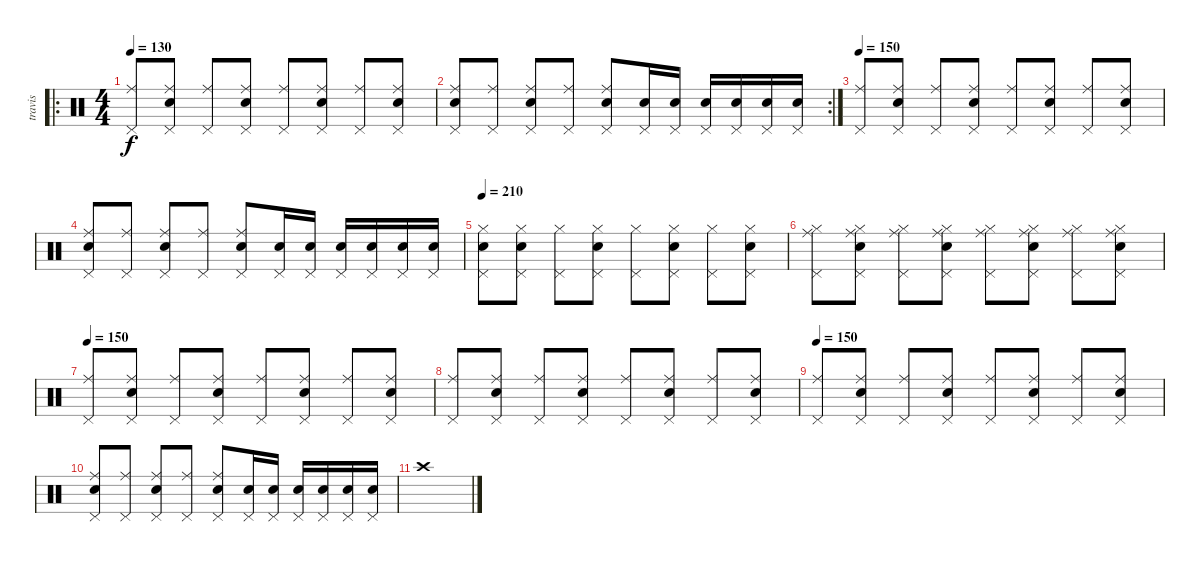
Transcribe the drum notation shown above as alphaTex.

\track ("travis" "travis") {instrument percussion}
\staff {score}
\articulation defaults
\ro
\ts (4 4)
\tempo 130
\clef neutral
\ks c
("Pedal Hi-Hat (hit)" "Ride (middle)").8{dy f} ("Pedal Hi-Hat (hit)" "Ride (middle)" "Electric Snare (hit)").8 ("Pedal Hi-Hat (hit)" "Ride (middle)").8 ("Pedal Hi-Hat (hit)" "Ride (middle)" "Electric Snare (hit)").8 ("Pedal Hi-Hat (hit)" "Ride (middle)").8 ("Pedal Hi-Hat (hit)" "Ride (middle)" "Electric Snare (hit)").8 ("Pedal Hi-Hat (hit)" "Ride (middle)").8 ("Pedal Hi-Hat (hit)" "Ride (middle)" "Electric Snare (hit)").8 |
\rc 2
("Pedal Hi-Hat (hit)" "Ride (middle)" "Electric Snare (hit)").8 ("Pedal Hi-Hat (hit)" "Ride (middle)").8 ("Pedal Hi-Hat (hit)" "Ride (middle)" "Electric Snare (hit)").8 ("Pedal Hi-Hat (hit)" "Ride (middle)").8 ("Pedal Hi-Hat (hit)" "Ride (middle)" "Electric Snare (hit)").8 ("Pedal Hi-Hat (hit)" "Electric Snare (hit)").16 ("Pedal Hi-Hat (hit)" "Snare (hit) 2").16 ("Pedal Hi-Hat (hit)" "Electric Snare (hit)").16 ("Pedal Hi-Hat (hit)" "Snare (hit) 2").16 ("Pedal Hi-Hat (hit)" "Electric Snare (hit)").16 ("Pedal Hi-Hat (hit)" "Snare (hit) 2").16 |
\tempo 150
("Pedal Hi-Hat (hit)" "Ride (middle)").8 ("Pedal Hi-Hat (hit)" "Ride (middle)" "Electric Snare (hit)").8 ("Pedal Hi-Hat (hit)" "Ride (middle)").8 ("Pedal Hi-Hat (hit)" "Ride (middle)" "Electric Snare (hit)").8 ("Pedal Hi-Hat (hit)" "Ride (middle)").8 ("Pedal Hi-Hat (hit)" "Ride (middle)" "Electric Snare (hit)").8 ("Pedal Hi-Hat (hit)" "Ride (middle)").8 ("Pedal Hi-Hat (hit)" "Ride (middle)" "Electric Snare (hit)").8 |
("Pedal Hi-Hat (hit)" "Ride (middle)" "Electric Snare (hit)").8 ("Pedal Hi-Hat (hit)" "Ride (middle)").8 ("Pedal Hi-Hat (hit)" "Ride (middle)" "Electric Snare (hit)").8 ("Pedal Hi-Hat (hit)" "Ride (middle)").8 ("Pedal Hi-Hat (hit)" "Ride (middle)" "Electric Snare (hit)").8 ("Pedal Hi-Hat (hit)" "Electric Snare (hit)").16 ("Pedal Hi-Hat (hit)" "Snare (hit) 2").16 ("Pedal Hi-Hat (hit)" "Electric Snare (hit)").16 ("Pedal Hi-Hat (hit)" "Snare (hit) 2").16 ("Pedal Hi-Hat (hit)" "Electric Snare (hit)").16 ("Pedal Hi-Hat (hit)" "Snare (hit) 2").16 |
\tempo 150
\tempo 210
("Pedal Hi-Hat (hit)" "Hi-Hat (closed)" "Electric Snare (hit)").8{volume 16} ("Pedal Hi-Hat (hit)" "Hi-Hat (closed)" "Electric Snare (hit)").8 ("Pedal Hi-Hat (hit)" "Hi-Hat (closed)").8 ("Pedal Hi-Hat (hit)" "Hi-Hat (closed)" "Electric Snare (hit)").8 ("Pedal Hi-Hat (hit)" "Hi-Hat (closed)").8 ("Pedal Hi-Hat (hit)" "Hi-Hat (closed)" "Electric Snare (hit)").8 ("Pedal Hi-Hat (hit)" "Hi-Hat (closed)").8 ("Pedal Hi-Hat (hit)" "Hi-Hat (closed)" "Electric Snare (hit)").8 |
("Pedal Hi-Hat (hit)" "Ride (middle)" "Hi-Hat (closed)").8 ("Pedal Hi-Hat (hit)" "Ride (middle)" "Hi-Hat (closed)" "Electric Snare (hit)").8 ("Pedal Hi-Hat (hit)" "Ride (middle)" "Hi-Hat (closed)").8 ("Pedal Hi-Hat (hit)" "Ride (middle)" "Hi-Hat (closed)" "Electric Snare (hit)").8 ("Pedal Hi-Hat (hit)" "Ride (middle)" "Hi-Hat (closed)").8 ("Pedal Hi-Hat (hit)" "Ride (middle)" "Hi-Hat (closed)" "Electric Snare (hit)").8 ("Pedal Hi-Hat (hit)" "Ride (middle)" "Hi-Hat (closed)").8 ("Pedal Hi-Hat (hit)" "Ride (middle)" "Hi-Hat (closed)" "Electric Snare (hit)").8 |
\tempo 150
("Pedal Hi-Hat (hit)" "Ride (middle)").8 ("Pedal Hi-Hat (hit)" "Ride (middle)" "Electric Snare (hit)").8 ("Pedal Hi-Hat (hit)" "Ride (middle)").8 ("Pedal Hi-Hat (hit)" "Ride (middle)" "Electric Snare (hit)").8 ("Pedal Hi-Hat (hit)" "Ride (middle)").8 ("Pedal Hi-Hat (hit)" "Ride (middle)" "Electric Snare (hit)").8 ("Pedal Hi-Hat (hit)" "Ride (middle)").8 ("Pedal Hi-Hat (hit)" "Ride (middle)" "Electric Snare (hit)").8 |
("Pedal Hi-Hat (hit)" "Ride (middle)").8 ("Pedal Hi-Hat (hit)" "Ride (middle)" "Electric Snare (hit)").8 ("Pedal Hi-Hat (hit)" "Ride (middle)").8 ("Pedal Hi-Hat (hit)" "Ride (middle)" "Electric Snare (hit)").8 ("Pedal Hi-Hat (hit)" "Ride (middle)").8 ("Pedal Hi-Hat (hit)" "Ride (middle)" "Electric Snare (hit)").8 ("Pedal Hi-Hat (hit)" "Ride (middle)").8 ("Pedal Hi-Hat (hit)" "Ride (middle)" "Electric Snare (hit)").8 |
\tempo 150
("Pedal Hi-Hat (hit)" "Ride (middle)").8 ("Pedal Hi-Hat (hit)" "Ride (middle)" "Electric Snare (hit)").8 ("Pedal Hi-Hat (hit)" "Ride (middle)").8 ("Pedal Hi-Hat (hit)" "Ride (middle)" "Electric Snare (hit)").8 ("Pedal Hi-Hat (hit)" "Ride (middle)").8 ("Pedal Hi-Hat (hit)" "Ride (middle)" "Electric Snare (hit)").8 ("Pedal Hi-Hat (hit)" "Ride (middle)").8 ("Pedal Hi-Hat (hit)" "Ride (middle)" "Electric Snare (hit)").8 |
("Pedal Hi-Hat (hit)" "Ride (middle)" "Electric Snare (hit)").8 ("Pedal Hi-Hat (hit)" "Ride (middle)").8 ("Pedal Hi-Hat (hit)" "Ride (middle)" "Electric Snare (hit)").8 ("Pedal Hi-Hat (hit)" "Ride (middle)").8 ("Pedal Hi-Hat (hit)" "Ride (middle)" "Electric Snare (hit)").8 ("Pedal Hi-Hat (hit)" "Electric Snare (hit)").16 ("Pedal Hi-Hat (hit)" "Snare (hit) 2").16 ("Pedal Hi-Hat (hit)" "Electric Snare (hit)").16 ("Pedal Hi-Hat (hit)" "Snare (hit) 2").16 ("Pedal Hi-Hat (hit)" "Electric Snare (hit)").16 ("Pedal Hi-Hat (hit)" "Snare (hit) 2").16 |
"Crash high (hit)".1
